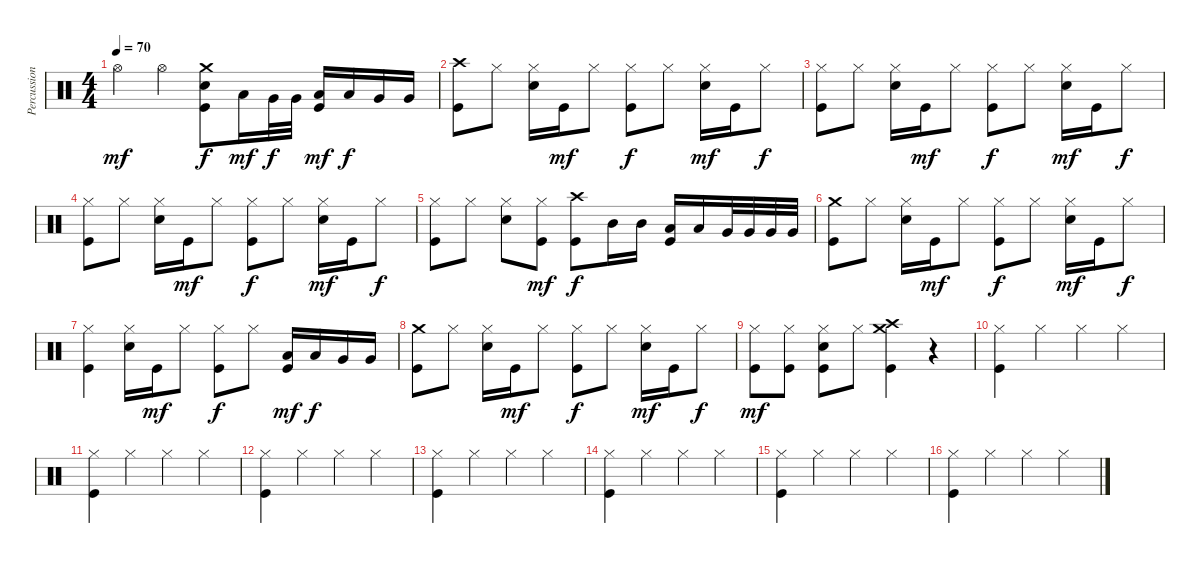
\track ("Percussion" "Percussion") {instrument percussion}
\staff {score}
\articulation defaults
\ts (4 4)
\tempo 70
\clef neutral
\ks c "Hi-Hat (open)".4{dy mf} "Hi-Hat (open)".4
("Crash medium (hit)" "Snare (hit) 2" "Kick (hit)").8{dy f} "Low Tom (hit)".16{dy mf} "Very Low Tom (hit)".32{dy f} "Very Low Tom (hit)".32 ("Low Tom (hit)" "Kick (hit)").16{dy mf} "Low Tom (hit)".16{dy f} "Very Low Tom (hit)".16 "Very Low Tom (hit)".16 |
("Crash high (hit)" "Kick (hit)").8 "Hi-Hat (closed)".8 ("Hi-Hat (closed)" "Snare (hit) 2").16 "Kick (hit)".16{dy mf} "Hi-Hat (closed)".8 ("Hi-Hat (closed)" "Kick (hit)").8{dy f} "Hi-Hat (closed)".8 ("Hi-Hat (closed)" "Snare (hit) 2").16{dy mf} "Kick (hit)".16 "Hi-Hat (closed)".8{dy f} |
("Hi-Hat (closed)" "Kick (hit)").8 "Hi-Hat (closed)".8 ("Hi-Hat (closed)" "Snare (hit) 2").16 "Kick (hit)".16{dy mf} "Hi-Hat (closed)".8 ("Hi-Hat (closed)" "Kick (hit)").8{dy f} "Hi-Hat (closed)".8 ("Hi-Hat (closed)" "Snare (hit) 2").16{dy mf} "Kick (hit)".16 "Hi-Hat (closed)".8{dy f} |
("Hi-Hat (closed)" "Kick (hit)").8 "Hi-Hat (closed)".8 ("Hi-Hat (closed)" "Snare (hit) 2").16 "Kick (hit)".16{dy mf} "Hi-Hat (closed)".8 ("Hi-Hat (closed)" "Kick (hit)").8{dy f} "Hi-Hat (closed)".8 ("Hi-Hat (closed)" "Snare (hit) 2").16{dy mf} "Kick (hit)".16 "Hi-Hat (closed)".8{dy f} |
("Hi-Hat (closed)" "Kick (hit)").8 "Hi-Hat (closed)".8 ("Hi-Hat (closed)" "Snare (hit) 2").8 ("Hi-Hat (closed)" "Kick (hit)").8{dy mf} ("Crash high (hit)" "Kick (hit)").8{dy f} "Mid Tom (hit)".16 "Mid Tom (hit)".16 ("Low Tom (hit)" "Kick (hit)").16 "Low Tom (hit)".16 "Very Low Tom (hit)".32 "Very Low Tom (hit)".32 "Very Low Tom (hit)".32 "Very Low Tom (hit)".32 |
("Crash medium (hit)" "Kick (hit)").8 "Hi-Hat (closed)".8 ("Hi-Hat (closed)" "Snare (hit) 2").16 "Kick (hit)".16{dy mf} "Hi-Hat (closed)".8 ("Hi-Hat (closed)" "Kick (hit)").8{dy f} "Hi-Hat (closed)".8 ("Hi-Hat (closed)" "Snare (hit) 2").16{dy mf} "Kick (hit)".16 "Hi-Hat (closed)".8{dy f} |
("Hi-Hat (closed)" "Kick (hit)").4 ("Hi-Hat (closed)" "Snare (hit) 2").16 "Kick (hit)".16{dy mf} "Hi-Hat (closed)".8 ("Hi-Hat (closed)" "Kick (hit)").8{dy f} "Hi-Hat (closed)".8 ("Low Tom (hit)" "Kick (hit)").16{dy mf} "Low Tom (hit)".16{dy f} "Very Low Tom (hit)".16 "Very Low Tom (hit)".16 |
("Crash medium (hit)" "Kick (hit)").8 "Hi-Hat (closed)".8 ("Hi-Hat (closed)" "Snare (hit) 2").16 "Kick (hit)".16{dy mf} "Hi-Hat (closed)".8 ("Hi-Hat (closed)" "Kick (hit)").8{dy f} "Hi-Hat (closed)".8 ("Hi-Hat (closed)" "Snare (hit) 2").16{dy mf} "Kick (hit)".16 "Hi-Hat (closed)".8{dy f} |
("Hi-Hat (closed)" "Kick (hit)").8{dy mf} ("Hi-Hat (closed)" "Kick (hit)").8 ("Hi-Hat (closed)" "Snare (hit) 2" "Kick (hit)").8 "Hi-Hat (closed)".8 ("Crash medium (hit)" "Crash high (hit)" "Kick (hit)").4 r.4 |
("Hi-Hat (closed)" "Kick (hit)").4 "Hi-Hat (closed)".4 "Hi-Hat (closed)".4 "Hi-Hat (closed)".4 |
("Hi-Hat (closed)" "Kick (hit)").4 "Hi-Hat (closed)".4 "Hi-Hat (closed)".4 "Hi-Hat (closed)".4 |
("Hi-Hat (closed)" "Kick (hit)").4 "Hi-Hat (closed)".4 "Hi-Hat (closed)".4 "Hi-Hat (closed)".4 |
("Hi-Hat (closed)" "Kick (hit)").4 "Hi-Hat (closed)".4 "Hi-Hat (closed)".4 "Hi-Hat (closed)".4 |
("Hi-Hat (closed)" "Kick (hit)").4 "Hi-Hat (closed)".4 "Hi-Hat (closed)".4 "Hi-Hat (closed)".4 |
("Hi-Hat (closed)" "Kick (hit)").4 "Hi-Hat (closed)".4 "Hi-Hat (closed)".4 "Hi-Hat (closed)".4 |
("Hi-Hat (closed)" "Kick (hit)").4 "Hi-Hat (closed)".4 "Hi-Hat (closed)".4 "Hi-Hat (closed)".4
